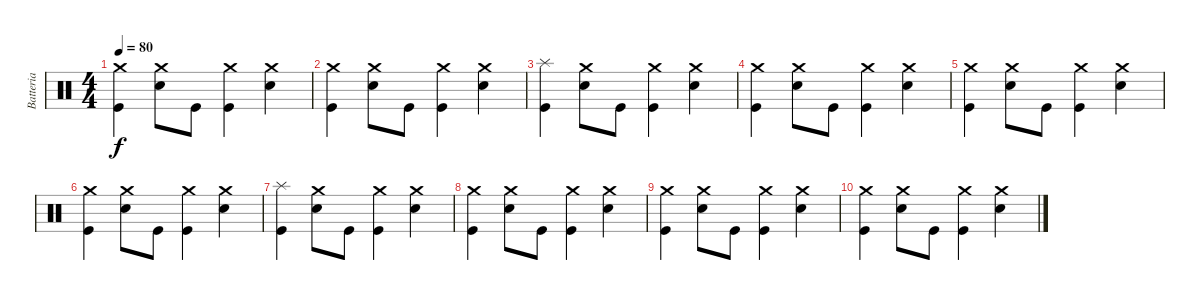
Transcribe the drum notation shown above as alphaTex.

\track ("Batteria" "Batteria") {instrument percussion}
\staff {score}
\articulation defaults
\ts (4 4)
\tempo 80
\clef neutral
\ks c
("Crash medium (hit)" "Kick (hit)").4{dy f} ("Crash medium (hit)" "Electric Snare (hit)").8 "Kick (hit)".8 ("Crash medium (hit)" "Kick (hit)").4 ("Crash medium (hit)" "Electric Snare (hit)").4 |
("Crash medium (hit)" "Kick (hit)").4 ("Crash medium (hit)" "Electric Snare (hit)").8 "Kick (hit)".8 ("Crash medium (hit)" "Kick (hit)").4 ("Crash medium (hit)" "Electric Snare (hit)").4 |
("Splash (hit)" "Kick (hit)").4 ("Crash medium (hit)" "Electric Snare (hit)").8 "Kick (hit)".8 ("Crash medium (hit)" "Kick (hit)").4 ("Crash medium (hit)" "Electric Snare (hit)").4 |
("Crash medium (hit)" "Kick (hit)").4 ("Crash medium (hit)" "Electric Snare (hit)").8 "Kick (hit)".8 ("Crash medium (hit)" "Kick (hit)").4 ("Crash medium (hit)" "Electric Snare (hit)").4 |
("Crash medium (hit)" "Kick (hit)").4 ("Crash medium (hit)" "Electric Snare (hit)").8 "Kick (hit)".8 ("Crash medium (hit)" "Kick (hit)").4 ("Crash medium (hit)" "Electric Snare (hit)").4 |
("Crash medium (hit)" "Kick (hit)").4 ("Crash medium (hit)" "Electric Snare (hit)").8 "Kick (hit)".8 ("Crash medium (hit)" "Kick (hit)").4 ("Crash medium (hit)" "Electric Snare (hit)").4 |
("Splash (hit)" "Kick (hit)").4{volume 16} ("Crash medium (hit)" "Electric Snare (hit)").8{volume 15} "Kick (hit)".8{volume 14} ("Crash medium (hit)" "Kick (hit)").4{volume 14} ("Crash medium (hit)" "Electric Snare (hit)").4{volume 13} |
("Crash medium (hit)" "Kick (hit)").4{volume 12} ("Crash medium (hit)" "Electric Snare (hit)").8{volume 11} "Kick (hit)".8{volume 10} ("Crash medium (hit)" "Kick (hit)").4{volume 10} ("Crash medium (hit)" "Electric Snare (hit)").4{volume 9} |
("Crash medium (hit)" "Kick (hit)").4{volume 8} ("Crash medium (hit)" "Electric Snare (hit)").8{volume 7} "Kick (hit)".8{volume 6} ("Crash medium (hit)" "Kick (hit)").4{volume 6} ("Crash medium (hit)" "Electric Snare (hit)").4{volume 5} |
("Crash medium (hit)" "Kick (hit)").4{volume 4} ("Crash medium (hit)" "Electric Snare (hit)").8{volume 3} "Kick (hit)".8{volume 3} ("Crash medium (hit)" "Kick (hit)").4{volume 2} ("Crash medium (hit)" "Electric Snare (hit)").4{volume 1}
